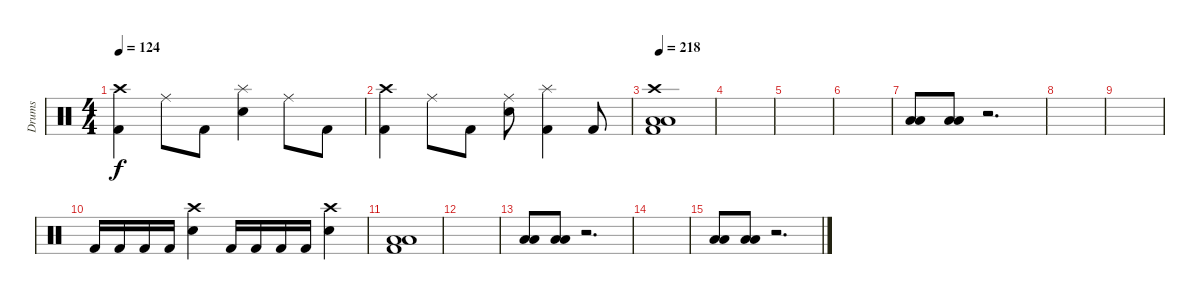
\track ("Drums" "Drums") {instrument percussion}
\staff {score}
\articulation defaults
\ts (4 4)
\tempo 124
\clef neutral
\ks c
("Kick (hit) 2" "Crash high (hit)").4{dy f} "Ride (middle)".8 "Kick (hit) 2".8 ("Snare (hit) 2" "Splash (hit)").4 "Ride (middle)".8 "Kick (hit) 2".8 |
("Kick (hit) 2" "Crash high (hit)").4 "Ride (middle)".8 "Kick (hit) 2".8 ("Snare (hit) 2" "Ride (middle)").8 ("Kick (hit) 2" "Splash (hit)").4 "Kick (hit) 2".8 |
\tempo 218
("Crash high (hit)" "Low Tom (hit)" "Low Floor Tom (hit)" "Kick (hit) 2").1 |
|
|
|
("Low Tom (hit)" "Low Tom (hit)").8 ("Low Tom (hit)" "Low Tom (hit)").8 r.2{d} |
|
|
"Kick (hit) 2".16 "Kick (hit) 2".16 "Kick (hit) 2".16 "Kick (hit) 2".16 ("Snare (hit) 2" "Crash high (hit)").4 "Kick (hit) 2".16 "Kick (hit) 2".16 "Kick (hit) 2".16 "Kick (hit) 2".16 ("Snare (hit) 2" "Crash high (hit)").4 |
("Kick (hit) 2" "Low Tom (hit)" "Low Floor Tom (hit)").1 |
|
("Low Tom (hit)" "Low Tom (hit)").8 ("Low Tom (hit)" "Low Tom (hit)").8 r.2{d} |
|
("Low Tom (hit)" "Low Tom (hit)").8 ("Low Tom (hit)" "Low Tom (hit)").8 r.2{d}
